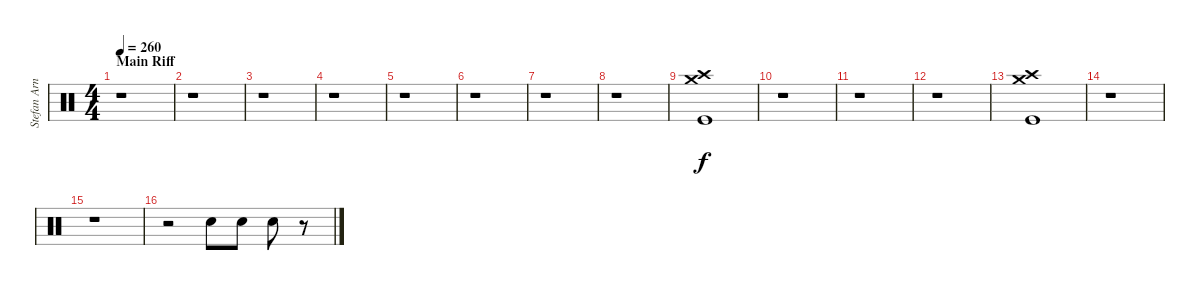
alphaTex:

\track ("Stefan Arnold" "Stefan Arn") {instrument percussion}
\staff {score}
\articulation defaults
\ts (4 4)
\section ("" "Main Riff")
\tempo 260
\clef neutral
\ks c
r.1{dy f} |
r.1 |
r.1 |
r.1 |
r.1 |
r.1 |
r.1 |
r.1 |
("Kick (hit)" "Crash high (hit)" "Crash medium (hit)").1 |
r.1 |
r.1 |
r.1 |
("Kick (hit)" "Crash high (hit)" "Crash medium (hit)").1 |
r.1 |
r.1 |
r.2 "Electric Snare (hit)".8 "Electric Snare (hit)".8 "Electric Snare (hit)".8 r.8
